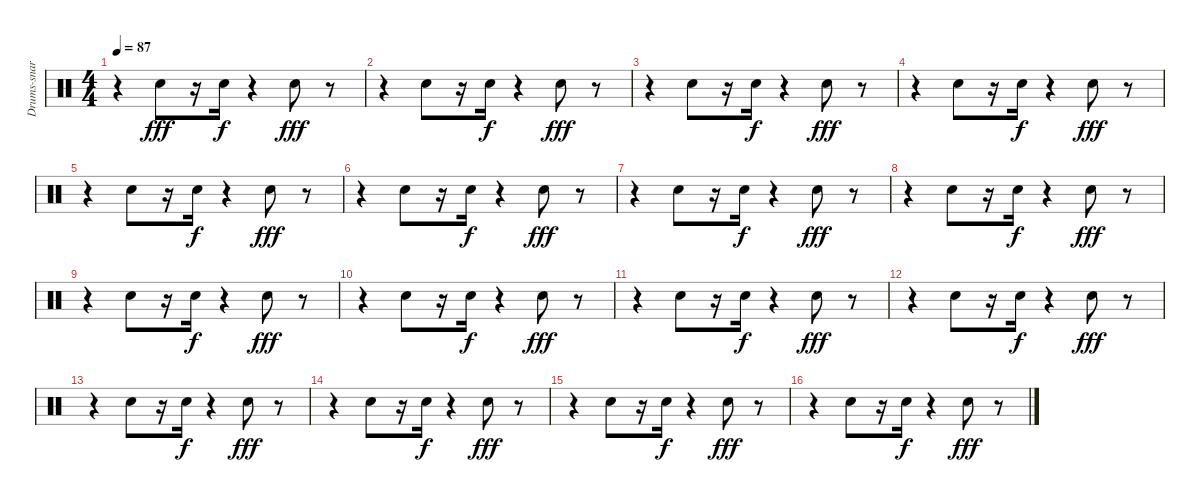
\track ("Drums-snare drum 1" "Drums-snar") {instrument percussion}
\staff {score}
\articulation defaults
\ts (4 4)
\tempo 87
\clef neutral
\ks c
r.4{dy fff} "Snare (hit) 2".8 r.16 "Snare (hit) 2".16{dy f} r.4 "Snare (hit) 2".8{dy fff} r.8 |
r.4 "Snare (hit) 2".8 r.16 "Snare (hit) 2".16{dy f} r.4 "Snare (hit) 2".8{dy fff} r.8 |
r.4 "Snare (hit) 2".8 r.16 "Snare (hit) 2".16{dy f} r.4 "Snare (hit) 2".8{dy fff} r.8 |
r.4 "Snare (hit) 2".8 r.16 "Snare (hit) 2".16{dy f} r.4 "Snare (hit) 2".8{dy fff} r.8 |
r.4 "Snare (hit) 2".8 r.16 "Snare (hit) 2".16{dy f} r.4 "Snare (hit) 2".8{dy fff} r.8 |
r.4 "Snare (hit) 2".8 r.16 "Snare (hit) 2".16{dy f} r.4 "Snare (hit) 2".8{dy fff} r.8 |
r.4 "Snare (hit) 2".8 r.16 "Snare (hit) 2".16{dy f} r.4 "Snare (hit) 2".8{dy fff} r.8 |
r.4 "Snare (hit) 2".8 r.16 "Snare (hit) 2".16{dy f} r.4 "Snare (hit) 2".8{dy fff} r.8 |
r.4 "Snare (hit) 2".8 r.16 "Snare (hit) 2".16{dy f} r.4 "Snare (hit) 2".8{dy fff} r.8 |
r.4 "Snare (hit) 2".8 r.16 "Snare (hit) 2".16{dy f} r.4 "Snare (hit) 2".8{dy fff} r.8 |
r.4 "Snare (hit) 2".8 r.16 "Snare (hit) 2".16{dy f} r.4 "Snare (hit) 2".8{dy fff} r.8 |
r.4 "Snare (hit) 2".8 r.16 "Snare (hit) 2".16{dy f} r.4 "Snare (hit) 2".8{dy fff} r.8 |
r.4 "Snare (hit) 2".8 r.16 "Snare (hit) 2".16{dy f} r.4 "Snare (hit) 2".8{dy fff} r.8 |
r.4 "Snare (hit) 2".8 r.16 "Snare (hit) 2".16{dy f} r.4 "Snare (hit) 2".8{dy fff} r.8 |
r.4 "Snare (hit) 2".8 r.16 "Snare (hit) 2".16{dy f} r.4 "Snare (hit) 2".8{dy fff} r.8 |
r.4 "Snare (hit) 2".8 r.16 "Snare (hit) 2".16{dy f} r.4 "Snare (hit) 2".8{dy fff} r.8
